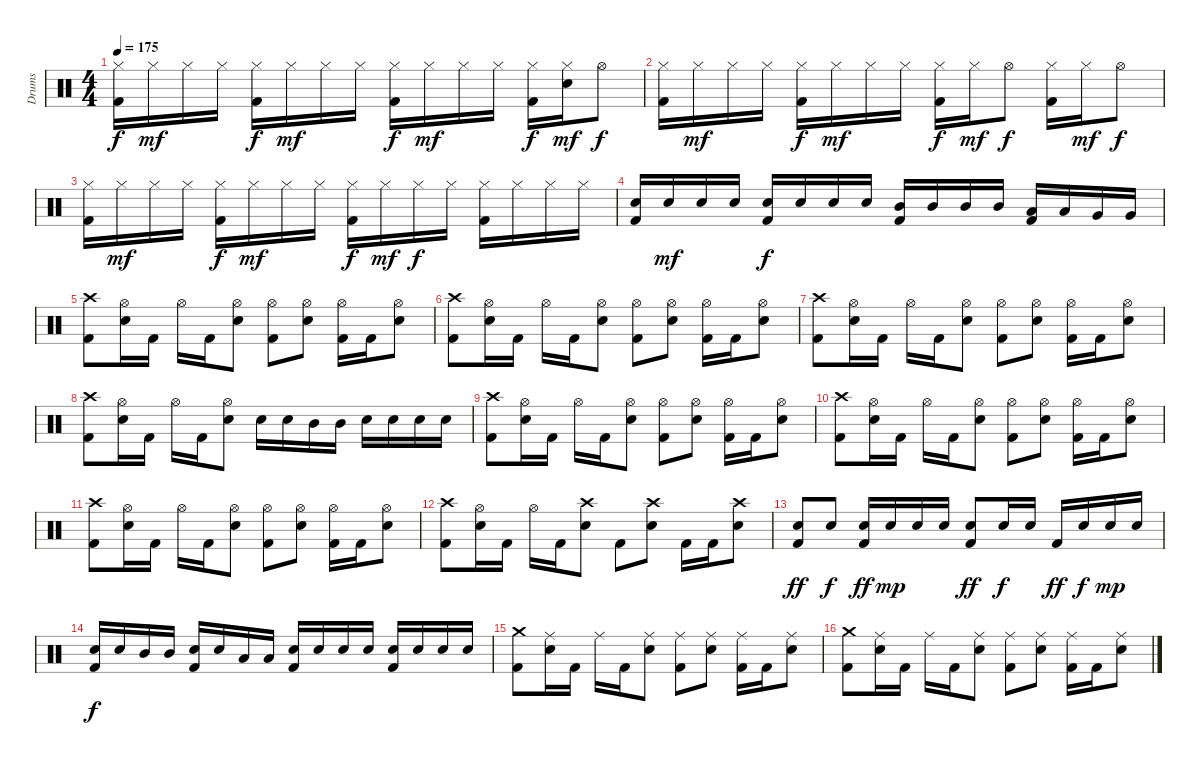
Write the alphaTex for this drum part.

\track ("Drums" "Drums") {instrument percussion}
\staff {score}
\articulation defaults
\ts (4 4)
\tempo 175
\clef neutral
\ks c
("Hi-Hat (closed)" "Kick (hit) 2").16{dy f} "Hi-Hat (closed)".16{dy mf} "Hi-Hat (closed)".16 "Hi-Hat (closed)".16 ("Hi-Hat (closed)" "Kick (hit) 2").16{dy f} "Hi-Hat (closed)".16{dy mf} "Hi-Hat (closed)".16 "Hi-Hat (closed)".16 ("Hi-Hat (closed)" "Kick (hit) 2").16{dy f} "Hi-Hat (closed)".16{dy mf} "Hi-Hat (closed)".16 "Hi-Hat (closed)".16 ("Hi-Hat (closed)" "Kick (hit) 2").16{dy f} ("Hi-Hat (closed)" "Snare (hit)").16{dy mf} "Hi-Hat (open)".8{dy f} |
("Hi-Hat (closed)" "Kick (hit) 2").16 "Hi-Hat (closed)".16{dy mf} "Hi-Hat (closed)".16 "Hi-Hat (closed)".16 ("Hi-Hat (closed)" "Kick (hit) 2").16{dy f} "Hi-Hat (closed)".16{dy mf} "Hi-Hat (closed)".16 "Hi-Hat (closed)".16 ("Hi-Hat (closed)" "Kick (hit) 2").16{dy f} "Hi-Hat (closed)".16{dy mf} "Hi-Hat (open)".8{dy f} ("Hi-Hat (closed)" "Kick (hit) 2").16 "Hi-Hat (closed)".16{dy mf} "Hi-Hat (open)".8{dy f} |
("Hi-Hat (closed)" "Kick (hit) 2").16 "Hi-Hat (closed)".16{dy mf} "Hi-Hat (closed)".16 "Hi-Hat (closed)".16 ("Hi-Hat (closed)" "Kick (hit) 2").16{dy f} "Hi-Hat (closed)".16{dy mf} "Hi-Hat (closed)".16 "Hi-Hat (closed)".16 ("Hi-Hat (closed)" "Kick (hit) 2").16{dy f} "Hi-Hat (closed)".16{dy mf} "Hi-Hat (closed)".16{dy f} "Hi-Hat (closed)".16 ("Hi-Hat (closed)" "Kick (hit) 2").16 "Hi-Hat (closed)".16 "Hi-Hat (closed)".16 "Hi-Hat (closed)".16 |
("Electric Snare (hit)" "Kick (hit) 2").16 "Electric Snare (hit)".16{dy mf} "Electric Snare (hit)".16 "Electric Snare (hit)".16 ("Electric Snare (hit)" "Kick (hit) 2").16{dy f} "Electric Snare (hit)".16 "Electric Snare (hit)".16 "Electric Snare (hit)".16 ("Mid Tom (hit)" "Kick (hit) 2").16 "Mid Tom (hit)".16 "Mid Tom (hit)".16 "Mid Tom (hit)".16 ("Low Tom (hit)" "Kick (hit) 2").16 "Low Tom (hit)".16 "Very Low Tom (hit)".16 "Very Low Tom (hit)".16 |
("Crash high (hit)" "Kick (hit) 2").8 ("Hi-Hat (open)" "Electric Snare (hit)").16 "Kick (hit) 2".16 "Hi-Hat (open)".16 "Kick (hit) 2".16 ("Hi-Hat (open)" "Electric Snare (hit)").8 ("Hi-Hat (open)" "Kick (hit) 2").8 ("Hi-Hat (open)" "Electric Snare (hit)").8 ("Hi-Hat (open)" "Kick (hit) 2").16 "Kick (hit) 2".16 ("Hi-Hat (open)" "Electric Snare (hit)").8 |
("Crash high (hit)" "Kick (hit) 2").8 ("Hi-Hat (open)" "Electric Snare (hit)").16 "Kick (hit) 2".16 "Hi-Hat (open)".16 "Kick (hit) 2".16 ("Hi-Hat (open)" "Electric Snare (hit)").8 ("Hi-Hat (open)" "Kick (hit) 2").8 ("Hi-Hat (open)" "Electric Snare (hit)").8 ("Hi-Hat (open)" "Kick (hit) 2").16 "Kick (hit) 2".16 ("Hi-Hat (open)" "Electric Snare (hit)").8 |
("Crash high (hit)" "Kick (hit) 2").8 ("Hi-Hat (open)" "Electric Snare (hit)").16 "Kick (hit) 2".16 "Hi-Hat (open)".16 "Kick (hit) 2".16 ("Hi-Hat (open)" "Electric Snare (hit)").8 ("Hi-Hat (open)" "Kick (hit) 2").8 ("Hi-Hat (open)" "Electric Snare (hit)").8 ("Hi-Hat (open)" "Kick (hit) 2").16 "Kick (hit) 2".16 ("Hi-Hat (open)" "Electric Snare (hit)").8 |
("Crash high (hit)" "Kick (hit) 2").8 ("Hi-Hat (open)" "Electric Snare (hit)").16 "Kick (hit) 2".16 "Hi-Hat (open)".16 "Kick (hit) 2".16 ("Hi-Hat (open)" "Electric Snare (hit)").8 "Electric Snare (hit)".16 "Electric Snare (hit)".16 "Mid Tom (hit)".16 "Mid Tom (hit)".16 "Electric Snare (hit)".16 "Electric Snare (hit)".16 "Electric Snare (hit)".16 "Electric Snare (hit)".16 |
("Crash high (hit)" "Kick (hit) 2").8 ("Hi-Hat (open)" "Electric Snare (hit)").16 "Kick (hit) 2".16 "Hi-Hat (open)".16 "Kick (hit) 2".16 ("Hi-Hat (open)" "Electric Snare (hit)").8 ("Hi-Hat (open)" "Kick (hit) 2").8 ("Hi-Hat (open)" "Electric Snare (hit)").8 ("Hi-Hat (open)" "Kick (hit) 2").16 "Kick (hit) 2".16 ("Hi-Hat (open)" "Electric Snare (hit)").8 |
("Crash high (hit)" "Kick (hit) 2").8 ("Hi-Hat (open)" "Electric Snare (hit)").16 "Kick (hit) 2".16 "Hi-Hat (open)".16 "Kick (hit) 2".16 ("Hi-Hat (open)" "Electric Snare (hit)").8 ("Hi-Hat (open)" "Kick (hit) 2").8 ("Hi-Hat (open)" "Electric Snare (hit)").8 ("Hi-Hat (open)" "Kick (hit) 2").16 "Kick (hit) 2".16 ("Hi-Hat (open)" "Electric Snare (hit)").8 |
("Crash high (hit)" "Kick (hit) 2").8 ("Hi-Hat (open)" "Electric Snare (hit)").16 "Kick (hit) 2".16 "Hi-Hat (open)".16 "Kick (hit) 2".16 ("Hi-Hat (open)" "Electric Snare (hit)").8 ("Hi-Hat (open)" "Kick (hit) 2").8 ("Hi-Hat (open)" "Electric Snare (hit)").8 ("Hi-Hat (open)" "Kick (hit) 2").16 "Kick (hit) 2".16 ("Hi-Hat (open)" "Electric Snare (hit)").8 |
("Crash high (hit)" "Kick (hit) 2").8 ("Hi-Hat (open)" "Electric Snare (hit)").16 "Kick (hit) 2".16 "Hi-Hat (open)".16 "Kick (hit) 2".16 ("Crash high (hit)" "Electric Snare (hit)").8 "Kick (hit) 2".8 ("Crash high (hit)" "Electric Snare (hit)").8 "Kick (hit) 2".16 "Kick (hit) 2".16 ("Crash high (hit)" "Electric Snare (hit)").8 |
("Electric Snare (hit)" "Kick (hit) 2").8{dy ff} "Electric Snare (hit)".8{dy f} ("Electric Snare (hit)" "Kick (hit) 2").16{dy ff} "Electric Snare (hit)".16{dy mp} "Electric Snare (hit)".16 "Electric Snare (hit)".16 ("Electric Snare (hit)" "Kick (hit) 2").8{dy ff} "Electric Snare (hit)".16{dy f} "Electric Snare (hit)".16 "Kick (hit) 2".16{dy ff} "Electric Snare (hit)".16{dy f} "Electric Snare (hit)".16{dy mp} "Electric Snare (hit)".16 |
("Electric Snare (hit)" "Kick (hit) 2").16{dy f} "Electric Snare (hit)".16 "Mid Tom (hit)".16 "Mid Tom (hit)".16 ("Electric Snare (hit)" "Kick (hit) 2").16 "Electric Snare (hit)".16 "Low Tom (hit)".16 "Low Tom (hit)".16 ("Electric Snare (hit)" "Kick (hit) 2").16 "Electric Snare (hit)".16 "Electric Snare (hit)".16 "Electric Snare (hit)".16 ("Electric Snare (hit)" "Kick (hit) 2").16 "Electric Snare (hit)".16 "Electric Snare (hit)".16 "Electric Snare (hit)".16 |
("Crash medium (hit)" "Kick (hit) 2").8 ("Ride (middle)" "Electric Snare (hit)").16 "Kick (hit) 2".16 "Ride (middle)".16 "Kick (hit) 2".16 ("Ride (middle)" "Electric Snare (hit)").8 ("Ride (middle)" "Kick (hit) 2").8 ("Ride (middle)" "Electric Snare (hit)").8 ("Ride (middle)" "Kick (hit) 2").16 "Kick (hit) 2".16 ("Ride (middle)" "Electric Snare (hit)").8 |
("Crash medium (hit)" "Kick (hit) 2").8 ("Ride (middle)" "Electric Snare (hit)").16 "Kick (hit) 2".16 "Ride (middle)".16 "Kick (hit) 2".16 ("Ride (middle)" "Electric Snare (hit)").8 ("Ride (middle)" "Kick (hit) 2").8 ("Ride (middle)" "Electric Snare (hit)").8 ("Ride (middle)" "Kick (hit) 2").16 "Kick (hit) 2".16 ("Ride (middle)" "Electric Snare (hit)").8
